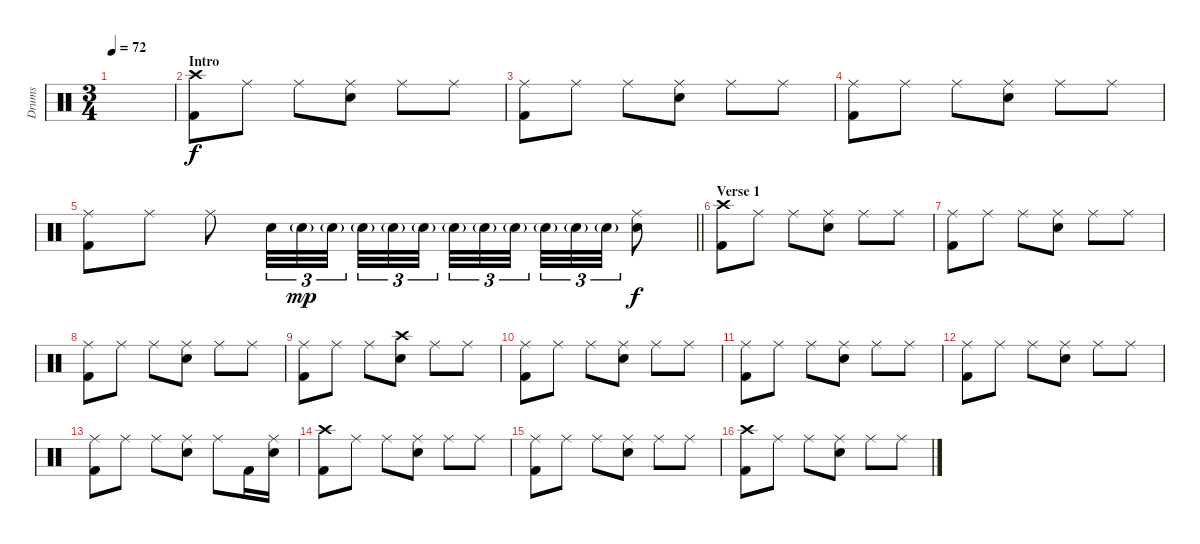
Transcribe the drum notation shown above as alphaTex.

\track ("Drums" "Drums") {instrument percussion}
\staff {score}
\articulation defaults
\ts (3 4)
\tempo 72
\clef neutral
\ks c
|
\section ("" "Intro")
("Crash high (hit)" "Kick (hit) 2").8 "Ride (middle)".8 "Ride (middle)".8 ("Ride (middle)" "Electric Snare (hit)").8 "Ride (middle)".8 "Ride (middle)".8 |
("Ride (middle)" "Kick (hit) 2").8 "Ride (middle)".8 "Ride (middle)".8 ("Ride (middle)" "Electric Snare (hit)").8 "Ride (middle)".8 "Ride (middle)".8 |
("Ride (middle)" "Kick (hit) 2").8 "Ride (middle)".8 "Ride (middle)".8 ("Ride (middle)" "Electric Snare (hit)").8 "Ride (middle)".8 "Ride (middle)".8 |
\barLineRight lightlight
("Ride (middle)" "Kick (hit) 2").8 "Ride (middle)".8 "Ride (middle)".8 "Electric Snare (hit)".32{tu (3 2)} "Electric Snare (hit)"{g}.32{tu (3 2) dy mp} "Electric Snare (hit)"{g}.32{tu (3 2)} "Electric Snare (hit)"{g}.32{tu (3 2)} "Electric Snare (hit)"{g}.32{tu (3 2)} "Electric Snare (hit)"{g}.32{tu (3 2)} "Electric Snare (hit)"{g}.32{tu (3 2)} "Electric Snare (hit)"{g}.32{tu (3 2)} "Electric Snare (hit)"{g}.32{tu (3 2)} "Electric Snare (hit)"{g}.32{tu (3 2)} "Electric Snare (hit)"{g}.32{tu (3 2)} "Electric Snare (hit)"{g}.32{tu (3 2)} ("Ride (middle)" "Electric Snare (hit)").8{dy f} |
\section ("" "Verse 1")
("Crash high (hit)" "Kick (hit) 2").8 "Ride (middle)".8 "Ride (middle)".8 ("Ride (middle)" "Electric Snare (hit)").8 "Ride (middle)".8 "Ride (middle)".8 |
("Ride (middle)" "Kick (hit) 2").8 "Ride (middle)".8 "Ride (middle)".8 ("Ride (middle)" "Electric Snare (hit)").8 "Ride (middle)".8 "Ride (middle)".8 |
("Ride (middle)" "Kick (hit) 2").8 "Ride (middle)".8 "Ride (middle)".8 ("Ride (middle)" "Electric Snare (hit)").8 "Ride (middle)".8 "Ride (middle)".8 |
("Ride (middle)" "Kick (hit) 2").8 "Ride (middle)".8 "Ride (middle)".8 ("Crash high (hit)" "Electric Snare (hit)").8 "Ride (middle)".8 "Ride (middle)".8 |
("Ride (middle)" "Kick (hit) 2").8 "Ride (middle)".8 "Ride (middle)".8 ("Ride (middle)" "Electric Snare (hit)").8 "Ride (middle)".8 "Ride (middle)".8 |
("Ride (middle)" "Kick (hit) 2").8 "Ride (middle)".8 "Ride (middle)".8 ("Ride (middle)" "Electric Snare (hit)").8 "Ride (middle)".8 "Ride (middle)".8 |
("Ride (middle)" "Kick (hit) 2").8 "Ride (middle)".8 "Ride (middle)".8 ("Ride (middle)" "Electric Snare (hit)").8 "Ride (middle)".8 "Ride (middle)".8 |
("Ride (middle)" "Kick (hit) 2").8 "Ride (middle)".8 "Ride (middle)".8 ("Ride (middle)" "Electric Snare (hit)").8 "Ride (middle)".8 "Kick (hit) 2".16 ("Ride (middle)" "Electric Snare (hit)").16 |
("Crash high (hit)" "Kick (hit) 2").8 "Ride (middle)".8 "Ride (middle)".8 ("Ride (middle)" "Electric Snare (hit)").8 "Ride (middle)".8 "Ride (middle)".8 |
("Ride (middle)" "Kick (hit) 2").8 "Ride (middle)".8 "Ride (middle)".8 ("Ride (middle)" "Electric Snare (hit)").8 "Ride (middle)".8 "Ride (middle)".8 |
("Crash high (hit)" "Kick (hit) 2").8 "Ride (middle)".8 "Ride (middle)".8 ("Ride (middle)" "Electric Snare (hit)").8 "Ride (middle)".8 "Ride (middle)".8
